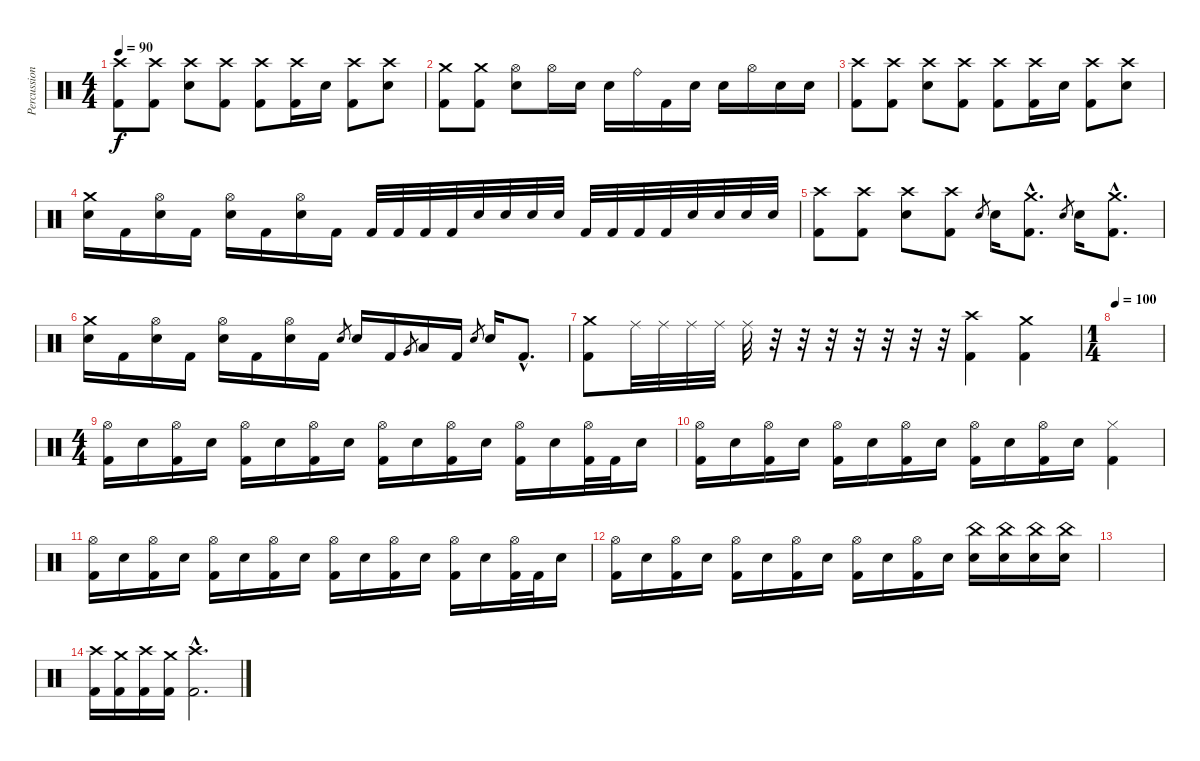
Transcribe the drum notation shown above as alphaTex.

\track ("Percussion" "Percussion") {instrument percussion}
\staff {score}
\articulation defaults
\ts (4 4)
\tempo 90
\clef neutral
\ks c
("Crash high (hit)" "Kick (hit) 2").8{dy f} ("Crash high (hit)" "Kick (hit) 2").8 ("Crash high (hit)" "Electric Snare (hit)").8 ("Crash high (hit)" "Kick (hit) 2").8 ("Crash high (hit)" "Kick (hit) 2").8 ("Crash high (hit)" "Kick (hit) 2").16 "Electric Snare (hit)".16 ("Crash high (hit)" "Kick (hit) 2").8 ("Crash high (hit)" "Electric Snare (hit)").8 |
("Crash medium (hit)" "Kick (hit) 2").8 ("Crash medium (hit)" "Kick (hit) 2").8 ("Hi-Hat (open)" "Electric Snare (hit)").8 "Hi-Hat (open)".16 "Electric Snare (hit)".16 "Electric Snare (hit)".16 "Ride (bell)".16 "Kick (hit) 2".16 "Electric Snare (hit)".16 "Electric Snare (hit)".16 "Hi-Hat (open)".16 "Electric Snare (hit)".16 "Electric Snare (hit)".16 |
("Crash high (hit)" "Kick (hit) 2").8 ("Crash high (hit)" "Kick (hit) 2").8 ("Crash high (hit)" "Electric Snare (hit)").8 ("Crash high (hit)" "Kick (hit) 2").8 ("Crash high (hit)" "Kick (hit) 2").8 ("Crash high (hit)" "Kick (hit) 2").16 "Electric Snare (hit)".16 ("Crash high (hit)" "Kick (hit) 2").8 ("Crash high (hit)" "Electric Snare (hit)").8 |
("Crash medium (hit)" "Electric Snare (hit)").16 "Kick (hit) 2".16 ("Hi-Hat (open)" "Electric Snare (hit)").16 "Kick (hit) 2".16 ("Hi-Hat (open)" "Electric Snare (hit)").16 "Kick (hit) 2".16 ("Hi-Hat (open)" "Electric Snare (hit)").16 "Kick (hit) 2".16 "Kick (hit) 2".32 "Kick (hit) 2".32 "Kick (hit) 2".32 "Kick (hit) 2".32 "Electric Snare (hit)".32 "Electric Snare (hit)".32 "Electric Snare (hit)".32 "Electric Snare (hit)".32 "Kick (hit) 2".32 "Kick (hit) 2".32 "Kick (hit) 2".32 "Kick (hit) 2".32 "Electric Snare (hit)".32 "Electric Snare (hit)".32 "Electric Snare (hit)".32 "Electric Snare (hit)".32 |
("Crash high (hit)" "Kick (hit) 2").8 ("Crash high (hit)" "Kick (hit) 2").8 ("Crash high (hit)" "Electric Snare (hit)").8 ("Crash high (hit)" "Kick (hit) 2").8 "Electric Snare (hit)".8{gr} "Electric Snare (hit)".16 ("Crash medium (hit)"{hac} "Kick (hit) 2"{hac}).8{d} "Electric Snare (hit)".8{gr} "Electric Snare (hit)".16 ("Crash medium (hit)"{hac} "Kick (hit) 2"{hac}).8{d} |
("Crash medium (hit)" "Electric Snare (hit)").16 "Kick (hit) 2".16 ("Hi-Hat (open)" "Electric Snare (hit)").16 "Kick (hit) 2".16 ("Hi-Hat (open)" "Electric Snare (hit)").16 "Kick (hit) 2".16 ("Hi-Hat (open)" "Electric Snare (hit)").16 "Kick (hit) 2".16 "Electric Snare (hit)".8{gr} "Electric Snare (hit)".16 "Kick (hit) 2".16 "Very Low Tom (hit)".8{gr} "Low Floor Tom (hit)".16 "Kick (hit) 2".16 "Electric Snare (hit)".8{gr} "Electric Snare (hit)".16 "Kick (hit) 2"{hac}.8{d} |
("Crash medium (hit)" "Kick (hit) 2").8 "Ride (middle)".32 "Ride (middle)".32 "Ride (middle)".32 "Ride (middle)".32 "Ride (middle)".32 r.32 r.32 r.32 r.32 r.32 r.32 r.32 ("Crash high (hit)" "Kick (hit) 2").4 ("Crash medium (hit)" "Kick (hit) 2").4 |
\ts (1 4)
\tempo 100
|
\ts (4 4)
("Hi-Hat (open)" "Kick (hit) 2").16 "Electric Snare (hit)".16 ("Hi-Hat (open)" "Kick (hit) 2").16 "Electric Snare (hit)".16 ("Hi-Hat (open)" "Kick (hit) 2").16 "Electric Snare (hit)".16 ("Hi-Hat (open)" "Kick (hit) 2").16 "Electric Snare (hit)".16 ("Hi-Hat (open)" "Kick (hit) 2").16 "Electric Snare (hit)".16 ("Hi-Hat (open)" "Kick (hit) 2").16 "Electric Snare (hit)".16 ("Hi-Hat (open)" "Kick (hit) 2").16 "Electric Snare (hit)".16 ("Hi-Hat (open)" "Kick (hit) 2").32 "Kick (hit) 2".32 "Electric Snare (hit)".16 |
("Hi-Hat (open)" "Kick (hit) 2").16 "Electric Snare (hit)".16 ("Hi-Hat (open)" "Kick (hit) 2").16 "Electric Snare (hit)".16 ("Hi-Hat (open)" "Kick (hit) 2").16 "Electric Snare (hit)".16 ("Hi-Hat (open)" "Kick (hit) 2").16 "Electric Snare (hit)".16 ("Hi-Hat (open)" "Kick (hit) 2").16 "Electric Snare (hit)".16 ("Hi-Hat (open)" "Kick (hit) 2").16 "Electric Snare (hit)".16 ("Hi-Hat (closed)" "Kick (hit) 2").4 |
("Hi-Hat (open)" "Kick (hit) 2").16 "Electric Snare (hit)".16 ("Hi-Hat (open)" "Kick (hit) 2").16 "Electric Snare (hit)".16 ("Hi-Hat (open)" "Kick (hit) 2").16 "Electric Snare (hit)".16 ("Hi-Hat (open)" "Kick (hit) 2").16 "Electric Snare (hit)".16 ("Hi-Hat (open)" "Kick (hit) 2").16 "Electric Snare (hit)".16 ("Hi-Hat (open)" "Kick (hit) 2").16 "Electric Snare (hit)".16 ("Hi-Hat (open)" "Kick (hit) 2").16 "Electric Snare (hit)".16 ("Hi-Hat (open)" "Kick (hit) 2").32 "Kick (hit) 2".32 "Electric Snare (hit)".16 |
("Hi-Hat (open)" "Kick (hit) 2").16 "Electric Snare (hit)".16 ("Hi-Hat (open)" "Kick (hit) 2").16 "Electric Snare (hit)".16 ("Hi-Hat (open)" "Kick (hit) 2").16 "Electric Snare (hit)".16 ("Hi-Hat (open)" "Kick (hit) 2").16 "Electric Snare (hit)".16 ("Hi-Hat (open)" "Kick (hit) 2").16 "Electric Snare (hit)".16 ("Hi-Hat (open)" "Kick (hit) 2").16 "Electric Snare (hit)".16 ("China (hit)" "Electric Snare (hit)").16 ("China (hit)" "Electric Snare (hit)").16 ("China (hit)" "Electric Snare (hit)").16 ("China (hit)" "Electric Snare (hit)").16 |
|
("Crash high (hit)" "Kick (hit) 2").16 ("Crash medium (hit)" "Kick (hit) 2").16 ("Crash high (hit)" "Kick (hit) 2").16 ("Crash medium (hit)" "Kick (hit) 2").16 ("Crash high (hit)"{hac} "Kick (hit) 2"{hac}).2{d}
